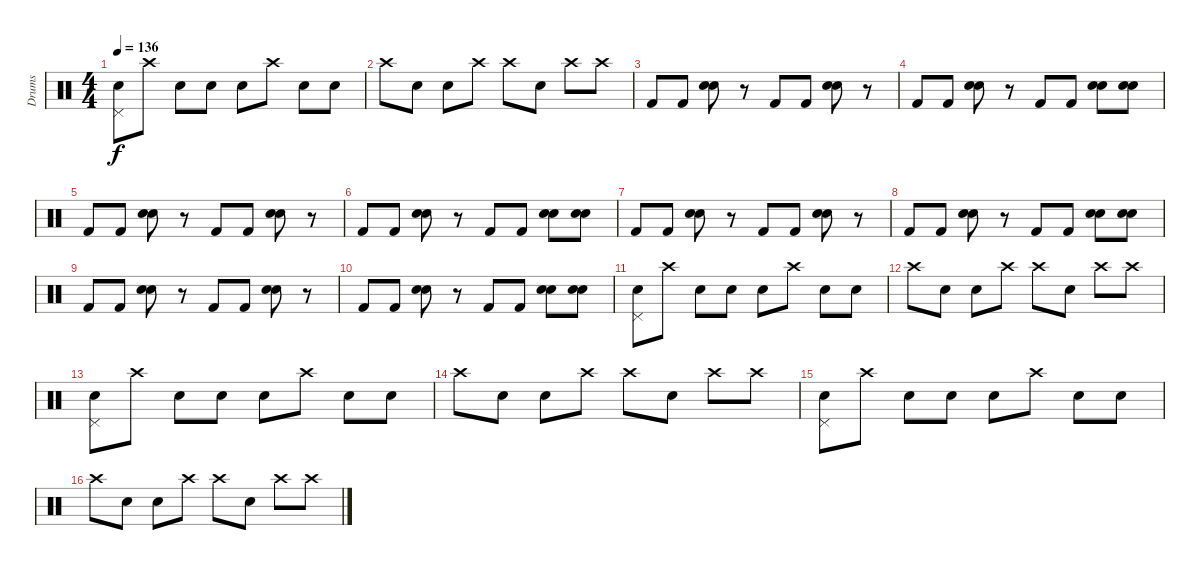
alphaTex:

\track ("Drums" "Drums") {instrument percussion}
\staff {score}
\articulation defaults
\ts (4 4)
\tempo 136
\clef neutral
\ks c
("Snare (hit) 2" "Pedal Hi-Hat (hit)").8{dy f} "Crash high (hit)".8 "Electric Snare (hit)".8 "Snare (hit) 2".8 "Snare (hit) 2".8 "Crash high (hit)".8 "Electric Snare (hit)".8 "Snare (hit) 2".8 |
"Crash high (hit)".8 "Electric Snare (hit)".8 "Snare (hit) 2".8 "Crash high (hit)".8 "Crash high (hit)".8 "Snare (hit) 2".8 "Crash high (hit)".8 "Crash high (hit)".8 |
"Kick (hit) 2".8 "Kick (hit) 2".8 ("Snare (hit) 2" "Electric Snare (hit)").8 r.8 "Kick (hit) 2".8 "Kick (hit) 2".8 ("Snare (hit) 2" "Electric Snare (hit)").8 r.8 |
"Kick (hit) 2".8 "Kick (hit) 2".8 ("Snare (hit) 2" "Electric Snare (hit)").8 r.8 "Kick (hit) 2".8 "Kick (hit) 2".8 ("Snare (hit) 2" "Electric Snare (hit)").8 ("Snare (hit) 2" "Electric Snare (hit)").8 |
"Kick (hit) 2".8 "Kick (hit) 2".8 ("Snare (hit) 2" "Electric Snare (hit)").8 r.8 "Kick (hit) 2".8 "Kick (hit) 2".8 ("Snare (hit) 2" "Electric Snare (hit)").8 r.8 |
"Kick (hit) 2".8 "Kick (hit) 2".8 ("Snare (hit) 2" "Electric Snare (hit)").8 r.8 "Kick (hit) 2".8 "Kick (hit) 2".8 ("Snare (hit) 2" "Electric Snare (hit)").8 ("Snare (hit) 2" "Electric Snare (hit)").8 |
"Kick (hit) 2".8 "Kick (hit) 2".8 ("Snare (hit) 2" "Electric Snare (hit)").8 r.8 "Kick (hit) 2".8 "Kick (hit) 2".8 ("Snare (hit) 2" "Electric Snare (hit)").8 r.8 |
"Kick (hit) 2".8 "Kick (hit) 2".8 ("Snare (hit) 2" "Electric Snare (hit)").8 r.8 "Kick (hit) 2".8 "Kick (hit) 2".8 ("Snare (hit) 2" "Electric Snare (hit)").8 ("Snare (hit) 2" "Electric Snare (hit)").8 |
"Kick (hit) 2".8 "Kick (hit) 2".8 ("Snare (hit) 2" "Electric Snare (hit)").8 r.8 "Kick (hit) 2".8 "Kick (hit) 2".8 ("Snare (hit) 2" "Electric Snare (hit)").8 r.8 |
"Kick (hit) 2".8 "Kick (hit) 2".8 ("Snare (hit) 2" "Electric Snare (hit)").8 r.8 "Kick (hit) 2".8 "Kick (hit) 2".8 ("Snare (hit) 2" "Electric Snare (hit)").8 ("Snare (hit) 2" "Electric Snare (hit)").8 |
("Snare (hit) 2" "Pedal Hi-Hat (hit)").8 "Crash high (hit)".8 "Electric Snare (hit)".8 "Snare (hit) 2".8 "Snare (hit) 2".8 "Crash high (hit)".8 "Electric Snare (hit)".8 "Snare (hit) 2".8 |
"Crash high (hit)".8 "Electric Snare (hit)".8 "Snare (hit) 2".8 "Crash high (hit)".8 "Crash high (hit)".8 "Snare (hit) 2".8 "Crash high (hit)".8 "Crash high (hit)".8 |
("Snare (hit) 2" "Pedal Hi-Hat (hit)").8 "Crash high (hit)".8 "Electric Snare (hit)".8 "Snare (hit) 2".8 "Snare (hit) 2".8 "Crash high (hit)".8 "Electric Snare (hit)".8 "Snare (hit) 2".8 |
"Crash high (hit)".8 "Electric Snare (hit)".8 "Snare (hit) 2".8 "Crash high (hit)".8 "Crash high (hit)".8 "Snare (hit) 2".8 "Crash high (hit)".8 "Crash high (hit)".8 |
("Snare (hit) 2" "Pedal Hi-Hat (hit)").8 "Crash high (hit)".8 "Electric Snare (hit)".8 "Snare (hit) 2".8 "Snare (hit) 2".8 "Crash high (hit)".8 "Electric Snare (hit)".8 "Snare (hit) 2".8 |
"Crash high (hit)".8 "Electric Snare (hit)".8 "Snare (hit) 2".8 "Crash high (hit)".8 "Crash high (hit)".8 "Snare (hit) 2".8 "Crash high (hit)".8 "Crash high (hit)".8
